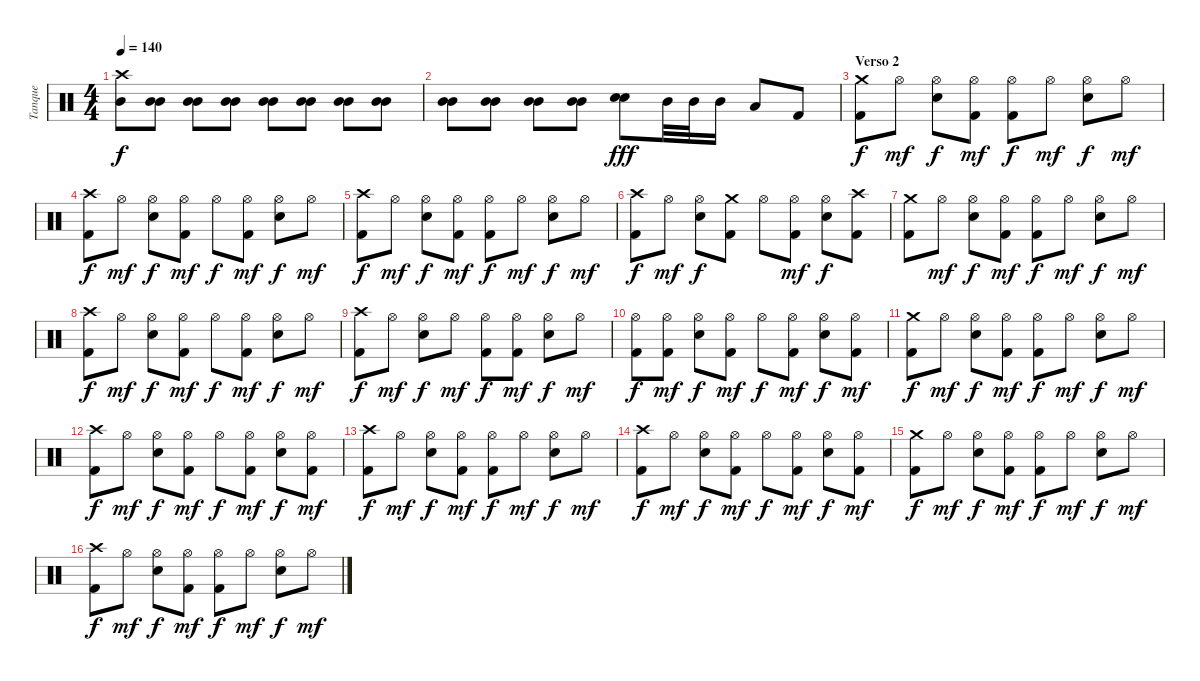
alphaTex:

\track ("Tanque" "Tanque") {instrument percussion}
\staff {score}
\articulation defaults
\ts (4 4)
\tempo 140
\clef neutral
\ks c
("Crash high (hit)" "Mid Tom (hit)").8{dy f} ("Mid Tom (hit)" "Mid Tom (hit)").8 ("Mid Tom (hit)" "Mid Tom (hit)").8 ("Mid Tom (hit)" "Mid Tom (hit)").8 ("Mid Tom (hit)" "Mid Tom (hit)").8 ("Mid Tom (hit)" "Mid Tom (hit)").8 ("Mid Tom (hit)" "Mid Tom (hit)").8 ("Mid Tom (hit)" "Mid Tom (hit)").8 |
("Mid Tom (hit)" "Mid Tom (hit)").8 ("Mid Tom (hit)" "Mid Tom (hit)").8 ("Mid Tom (hit)" "Mid Tom (hit)").8 ("Mid Tom (hit)" "Mid Tom (hit)").8 ("Electric Snare (hit)" "Electric Snare (hit)").8{dy fff} "Mid Tom (hit)".32 "Mid Tom (hit)".32 "Mid Tom (hit)".16 "Low Tom (hit)".8 "Kick (hit) 2".8 |
\section ("" "Verso 2")
("Crash medium (hit)" "Kick (hit) 2").8{dy f} "Hi-Hat (open)".8{dy mf} ("Hi-Hat (open)" "Electric Snare (hit)").8{dy f} ("Hi-Hat (open)" "Kick (hit) 2").8{dy mf} ("Hi-Hat (open)" "Kick (hit) 2").8{dy f} "Hi-Hat (open)".8{dy mf} ("Hi-Hat (open)" "Electric Snare (hit)").8{dy f} "Hi-Hat (open)".8{dy mf} |
("Crash high (hit)" "Kick (hit) 2").8{dy f} "Hi-Hat (open)".8{dy mf} ("Hi-Hat (open)" "Electric Snare (hit)").8{dy f} ("Hi-Hat (open)" "Kick (hit) 2").8{dy mf} "Hi-Hat (open)".8{dy f} ("Hi-Hat (open)" "Kick (hit) 2").8{dy mf} ("Hi-Hat (open)" "Electric Snare (hit)").8{dy f} "Hi-Hat (open)".8{dy mf} |
("Crash high (hit)" "Kick (hit) 2").8{dy f} "Hi-Hat (open)".8{dy mf} ("Hi-Hat (open)" "Electric Snare (hit)").8{dy f} ("Hi-Hat (open)" "Kick (hit) 2").8{dy mf} ("Hi-Hat (open)" "Kick (hit) 2").8{dy f} "Hi-Hat (open)".8{dy mf} ("Hi-Hat (open)" "Electric Snare (hit)").8{dy f} "Hi-Hat (open)".8{dy mf} |
("Crash high (hit)" "Kick (hit) 2").8{dy f} "Hi-Hat (open)".8{dy mf} ("Hi-Hat (open)" "Electric Snare (hit)").8{dy f} ("Crash medium (hit)" "Kick (hit) 2").8 "Hi-Hat (open)".8 ("Hi-Hat (open)" "Kick (hit) 2").8{dy mf} ("Hi-Hat (open)" "Electric Snare (hit)").8{dy f} ("Crash high (hit)" "Kick (hit) 2").8 |
("Crash medium (hit)" "Kick (hit) 2").8 "Hi-Hat (open)".8{dy mf} ("Hi-Hat (open)" "Electric Snare (hit)").8{dy f} ("Hi-Hat (open)" "Kick (hit) 2").8{dy mf} ("Hi-Hat (open)" "Kick (hit) 2").8{dy f} "Hi-Hat (open)".8{dy mf} ("Hi-Hat (open)" "Electric Snare (hit)").8{dy f} "Hi-Hat (open)".8{dy mf} |
("Crash high (hit)" "Kick (hit) 2").8{dy f} "Hi-Hat (open)".8{dy mf} ("Hi-Hat (open)" "Electric Snare (hit)").8{dy f} ("Hi-Hat (open)" "Kick (hit) 2").8{dy mf} "Hi-Hat (open)".8{dy f} ("Hi-Hat (open)" "Kick (hit) 2").8{dy mf} ("Hi-Hat (open)" "Electric Snare (hit)").8{dy f} "Hi-Hat (open)".8{dy mf} |
("Crash high (hit)" "Kick (hit) 2").8{dy f} "Hi-Hat (open)".8{dy mf} ("Hi-Hat (open)" "Electric Snare (hit)").8{dy f} "Hi-Hat (open)".8{dy mf} ("Hi-Hat (open)" "Kick (hit) 2").8{dy f} ("Hi-Hat (open)" "Kick (hit) 2").8{dy mf} ("Hi-Hat (open)" "Electric Snare (hit)").8{dy f} "Hi-Hat (open)".8{dy mf} |
("Hi-Hat (open)" "Kick (hit) 2").8{dy f} ("Hi-Hat (open)" "Kick (hit) 2").8{dy mf} ("Hi-Hat (open)" "Electric Snare (hit)").8{dy f} ("Hi-Hat (open)" "Kick (hit) 2").8{dy mf} "Hi-Hat (open)".8{dy f} ("Hi-Hat (open)" "Kick (hit) 2").8{dy mf} ("Hi-Hat (open)" "Electric Snare (hit)").8{dy f} ("Hi-Hat (open)" "Kick (hit) 2").8{dy mf} |
("Crash medium (hit)" "Kick (hit) 2").8{dy f} "Hi-Hat (open)".8{dy mf} ("Hi-Hat (open)" "Electric Snare (hit)").8{dy f} ("Hi-Hat (open)" "Kick (hit) 2").8{dy mf} ("Hi-Hat (open)" "Kick (hit) 2").8{dy f} "Hi-Hat (open)".8{dy mf} ("Hi-Hat (open)" "Electric Snare (hit)").8{dy f} "Hi-Hat (open)".8{dy mf} |
("Crash high (hit)" "Kick (hit) 2").8{dy f} "Hi-Hat (open)".8{dy mf} ("Hi-Hat (open)" "Electric Snare (hit)").8{dy f} ("Hi-Hat (open)" "Kick (hit) 2").8{dy mf} "Hi-Hat (open)".8{dy f} ("Hi-Hat (open)" "Kick (hit) 2").8{dy mf} ("Hi-Hat (open)" "Electric Snare (hit)").8{dy f} ("Hi-Hat (open)" "Kick (hit) 2").8{dy mf} |
("Crash high (hit)" "Kick (hit) 2").8{dy f} "Hi-Hat (open)".8{dy mf} ("Hi-Hat (open)" "Electric Snare (hit)").8{dy f} ("Hi-Hat (open)" "Kick (hit) 2").8{dy mf} ("Hi-Hat (open)" "Kick (hit) 2").8{dy f} "Hi-Hat (open)".8{dy mf} ("Hi-Hat (open)" "Electric Snare (hit)").8{dy f} "Hi-Hat (open)".8{dy mf} |
("Crash high (hit)" "Kick (hit) 2").8{dy f} "Hi-Hat (open)".8{dy mf} ("Hi-Hat (open)" "Electric Snare (hit)").8{dy f} ("Hi-Hat (open)" "Kick (hit) 2").8{dy mf} "Hi-Hat (open)".8{dy f} ("Hi-Hat (open)" "Kick (hit) 2").8{dy mf} ("Hi-Hat (open)" "Electric Snare (hit)").8{dy f} ("Hi-Hat (open)" "Kick (hit) 2").8{dy mf} |
("Crash medium (hit)" "Kick (hit) 2").8{dy f} "Hi-Hat (open)".8{dy mf} ("Hi-Hat (open)" "Electric Snare (hit)").8{dy f} ("Hi-Hat (open)" "Kick (hit) 2").8{dy mf} ("Hi-Hat (open)" "Kick (hit) 2").8{dy f} "Hi-Hat (open)".8{dy mf} ("Hi-Hat (open)" "Electric Snare (hit)").8{dy f} "Hi-Hat (open)".8{dy mf} |
("Crash high (hit)" "Kick (hit) 2").8{dy f} "Hi-Hat (open)".8{dy mf} ("Hi-Hat (open)" "Electric Snare (hit)").8{dy f} ("Hi-Hat (open)" "Kick (hit) 2").8{dy mf} ("Hi-Hat (open)" "Kick (hit) 2").8{dy f} "Hi-Hat (open)".8{dy mf} ("Hi-Hat (open)" "Electric Snare (hit)").8{dy f} "Hi-Hat (open)".8{dy mf}
